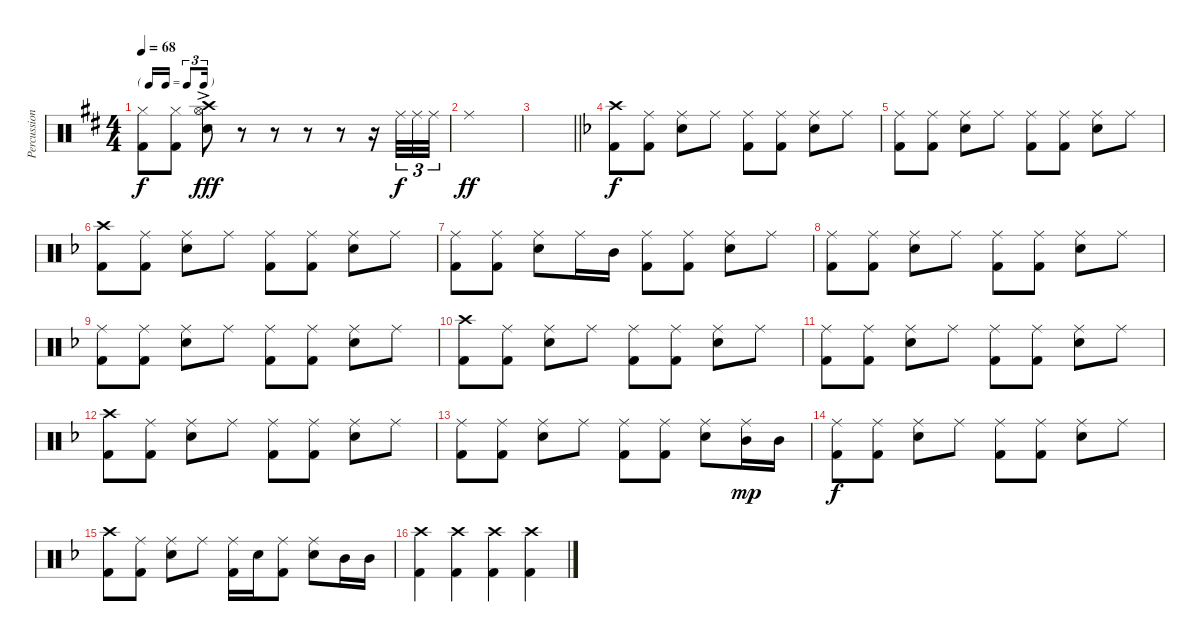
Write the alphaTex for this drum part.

\track ("Percussion" "Percussion") {instrument percussion}
\staff {score}
\articulation defaults
\ts (4 4)
\tf triplet16th
\tempo 68
\clef neutral
\ks d
("Hi-Hat (closed)" "Kick (hit) 2").8{dy f} ("Hi-Hat (closed)" "Kick (hit) 2").8 ("Crash high (hit)" "Hi-Hat (open)" "Snare (hit) 2"{ac}).8{dy fff} r.8 r.8 r.8 r.8 r.16 "Ride (middle)".32{tu (3 2) dy f} "Ride (middle)".32{tu (3 2)} "Ride (middle)".32{tu (3 2)} |
"Ride (middle)".1{dy ff} |
\barLineRight lightlight
|
\ks f
("Crash high (hit)" "Kick (hit) 2").8{dy f} ("Ride (middle)" "Kick (hit) 2").8 ("Ride (middle)" "Snare (hit) 2").8 "Ride (middle)".8 ("Ride (middle)" "Kick (hit) 2").8 ("Ride (middle)" "Kick (hit) 2").8 ("Ride (middle)" "Snare (hit) 2").8 "Ride (middle)".8 |
("Ride (middle)" "Kick (hit) 2").8 ("Ride (middle)" "Kick (hit) 2").8 ("Ride (middle)" "Snare (hit) 2").8 "Ride (middle)".8 ("Ride (middle)" "Kick (hit) 2").8 ("Ride (middle)" "Kick (hit) 2").8 ("Ride (middle)" "Snare (hit) 2").8 "Ride (middle)".8 |
("Crash high (hit)" "Kick (hit) 2").8 ("Ride (middle)" "Kick (hit) 2").8 ("Ride (middle)" "Snare (hit) 2").8 "Ride (middle)".8 ("Ride (middle)" "Kick (hit) 2").8 ("Ride (middle)" "Kick (hit) 2").8 ("Ride (middle)" "Snare (hit) 2").8 "Ride (middle)".8 |
("Ride (middle)" "Kick (hit) 2").8 ("Ride (middle)" "Kick (hit) 2").8 ("Ride (middle)" "Snare (hit) 2").8 "Ride (middle)".16 "Mid Tom (hit)".16 ("Ride (middle)" "Kick (hit) 2").8 ("Ride (middle)" "Kick (hit) 2").8 ("Ride (middle)" "Snare (hit) 2").8 "Ride (middle)".8 |
("Ride (middle)" "Kick (hit) 2").8 ("Ride (middle)" "Kick (hit) 2").8 ("Ride (middle)" "Snare (hit) 2").8 "Ride (middle)".8 ("Ride (middle)" "Kick (hit) 2").8 ("Ride (middle)" "Kick (hit) 2").8 ("Ride (middle)" "Snare (hit) 2").8 "Ride (middle)".8 |
("Ride (middle)" "Kick (hit) 2").8 ("Ride (middle)" "Kick (hit) 2").8 ("Ride (middle)" "Snare (hit) 2").8 "Ride (middle)".8 ("Ride (middle)" "Kick (hit) 2").8 ("Ride (middle)" "Kick (hit) 2").8 ("Ride (middle)" "Snare (hit) 2").8 "Ride (middle)".8 |
("Crash high (hit)" "Kick (hit) 2").8 ("Ride (middle)" "Kick (hit) 2").8 ("Ride (middle)" "Snare (hit) 2").8 "Ride (middle)".8 ("Ride (middle)" "Kick (hit) 2").8 ("Ride (middle)" "Kick (hit) 2").8 ("Ride (middle)" "Snare (hit) 2").8 "Ride (middle)".8 |
("Ride (middle)" "Kick (hit) 2").8 ("Ride (middle)" "Kick (hit) 2").8 ("Ride (middle)" "Snare (hit) 2").8 "Ride (middle)".8 ("Ride (middle)" "Kick (hit) 2").8 ("Ride (middle)" "Kick (hit) 2").8 ("Ride (middle)" "Snare (hit) 2").8 "Ride (middle)".8 |
("Crash high (hit)" "Kick (hit) 2").8 ("Ride (middle)" "Kick (hit) 2").8 ("Ride (middle)" "Snare (hit) 2").8 "Ride (middle)".8 ("Ride (middle)" "Kick (hit) 2").8 ("Ride (middle)" "Kick (hit) 2").8 ("Ride (middle)" "Snare (hit) 2").8 "Ride (middle)".8 |
("Ride (middle)" "Kick (hit) 2").8 ("Ride (middle)" "Kick (hit) 2").8 ("Ride (middle)" "Snare (hit) 2").8 "Ride (middle)".8 ("Ride (middle)" "Kick (hit) 2").8 ("Ride (middle)" "Kick (hit) 2").8 ("Ride (middle)" "Snare (hit) 2").8 ("Ride (middle)" "Mid Tom (hit)").16{dy mp} "Mid Tom (hit)".16 |
("Ride (middle)" "Kick (hit) 2").8{dy f} ("Ride (middle)" "Kick (hit) 2").8 ("Ride (middle)" "Snare (hit) 2").8 "Ride (middle)".8 ("Ride (middle)" "Kick (hit) 2").8 ("Ride (middle)" "Kick (hit) 2").8 ("Ride (middle)" "Snare (hit) 2").8 "Ride (middle)".8 |
("Crash high (hit)" "Kick (hit) 2").8 ("Ride (middle)" "Kick (hit) 2").8 ("Ride (middle)" "Snare (hit) 2").8 "Ride (middle)".8 ("Ride (middle)" "Kick (hit) 2").16 "Snare (hit) 2".16 ("Ride (middle)" "Kick (hit) 2").8 ("Ride (middle)" "Snare (hit) 2").8 "Mid Tom (hit)".16 "Mid Tom (hit)".16 |
("Crash high (hit)" "Kick (hit) 2").4 ("Crash high (hit)" "Kick (hit) 2").4 ("Crash high (hit)" "Kick (hit) 2").4 ("Crash high (hit)" "Kick (hit) 2").4
